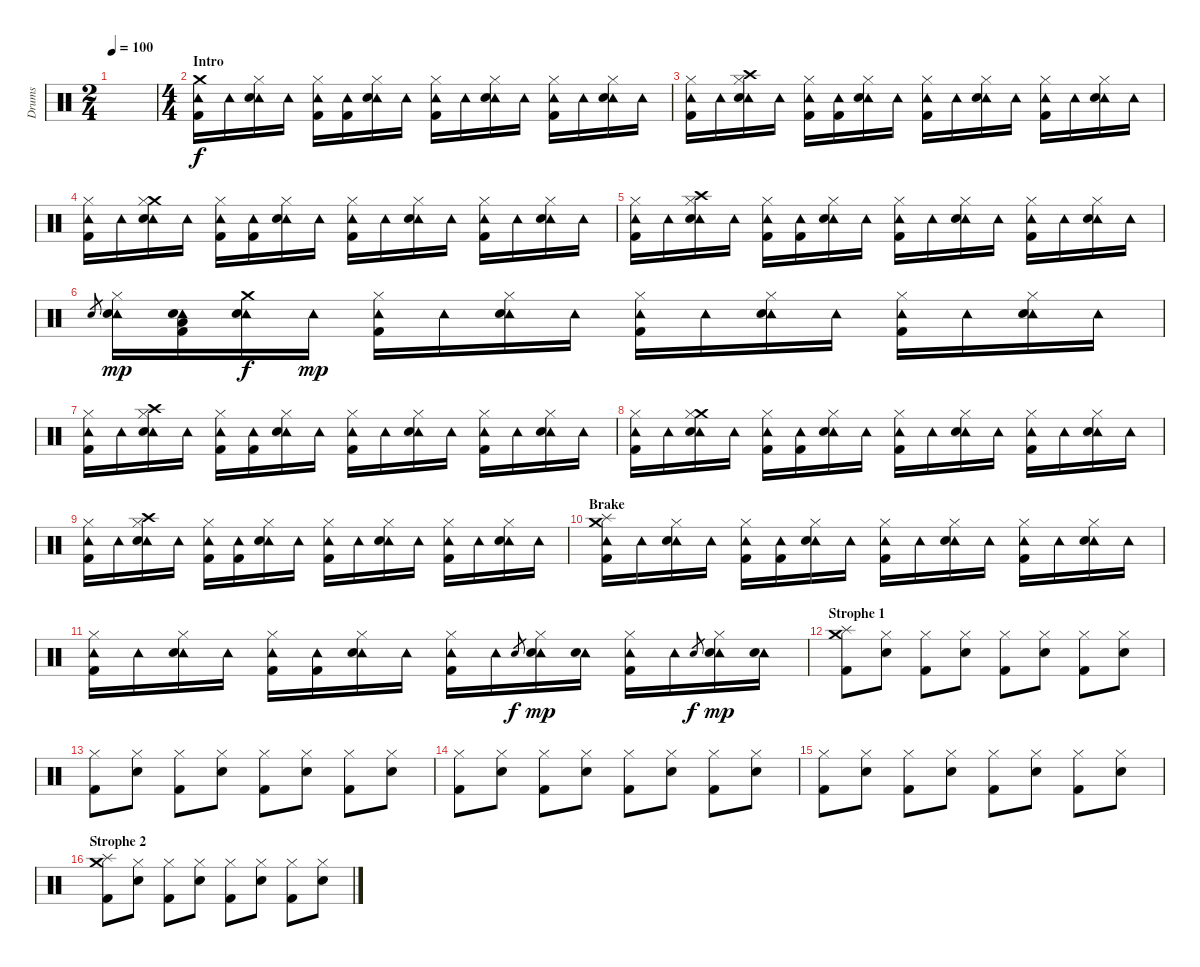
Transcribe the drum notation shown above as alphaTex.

\track ("Drums" "Drums") {instrument percussion}
\staff {score}
\articulation defaults
\ts (2 4)
\tempo 100
\clef neutral
\ks c
|
\ts (4 4)
\section ("" "Intro")
("Crash medium (hit)" "Tambourine (hit)" "Kick (hit) 2").16 "Tambourine (hit)".16 ("Hi-Hat (closed)" "Tambourine (hit)" "Electric Snare (hit)").16 "Tambourine (hit)".16 ("Hi-Hat (closed)" "Tambourine (hit)" "Kick (hit) 2").16 ("Tambourine (hit)" "Kick (hit) 2").16 ("Hi-Hat (closed)" "Tambourine (hit)" "Electric Snare (hit)").16 "Tambourine (hit)".16 ("Hi-Hat (closed)" "Tambourine (hit)" "Kick (hit) 2").16 "Tambourine (hit)".16 ("Hi-Hat (closed)" "Tambourine (hit)" "Electric Snare (hit)").16 "Tambourine (hit)".16 ("Hi-Hat (closed)" "Tambourine (hit)" "Kick (hit) 2").16 "Tambourine (hit)".16 ("Hi-Hat (closed)" "Tambourine (hit)" "Electric Snare (hit)").16 "Tambourine (hit)".16 |
("Hi-Hat (closed)" "Tambourine (hit)" "Kick (hit) 2").16 "Tambourine (hit)".16 ("Crash high (hit)" "Hi-Hat (closed)" "Tambourine (hit)" "Electric Snare (hit)").16 "Tambourine (hit)".16 ("Hi-Hat (closed)" "Tambourine (hit)" "Kick (hit) 2").16 ("Tambourine (hit)" "Kick (hit) 2").16 ("Hi-Hat (closed)" "Tambourine (hit)" "Electric Snare (hit)").16 "Tambourine (hit)".16 ("Hi-Hat (closed)" "Tambourine (hit)" "Kick (hit) 2").16 "Tambourine (hit)".16 ("Hi-Hat (closed)" "Tambourine (hit)" "Electric Snare (hit)").16 "Tambourine (hit)".16 ("Hi-Hat (closed)" "Tambourine (hit)" "Kick (hit) 2").16 "Tambourine (hit)".16 ("Hi-Hat (closed)" "Tambourine (hit)" "Electric Snare (hit)").16 "Tambourine (hit)".16 |
("Hi-Hat (closed)" "Tambourine (hit)" "Kick (hit) 2").16 "Tambourine (hit)".16 ("Crash medium (hit)" "Hi-Hat (closed)" "Tambourine (hit)" "Electric Snare (hit)").16 "Tambourine (hit)".16 ("Hi-Hat (closed)" "Tambourine (hit)" "Kick (hit) 2").16 ("Tambourine (hit)" "Kick (hit) 2").16 ("Hi-Hat (closed)" "Tambourine (hit)" "Electric Snare (hit)").16 "Tambourine (hit)".16 ("Hi-Hat (closed)" "Tambourine (hit)" "Kick (hit) 2").16 "Tambourine (hit)".16 ("Hi-Hat (closed)" "Tambourine (hit)" "Electric Snare (hit)").16 "Tambourine (hit)".16 ("Hi-Hat (closed)" "Tambourine (hit)" "Kick (hit) 2").16 "Tambourine (hit)".16 ("Hi-Hat (closed)" "Tambourine (hit)" "Electric Snare (hit)").16 "Tambourine (hit)".16 |
("Hi-Hat (closed)" "Tambourine (hit)" "Kick (hit) 2").16 "Tambourine (hit)".16 ("Crash high (hit)" "Hi-Hat (closed)" "Tambourine (hit)" "Electric Snare (hit)").16 "Tambourine (hit)".16 ("Hi-Hat (closed)" "Tambourine (hit)" "Kick (hit) 2").16 ("Tambourine (hit)" "Kick (hit) 2").16 ("Hi-Hat (closed)" "Tambourine (hit)" "Electric Snare (hit)").16 "Tambourine (hit)".16 ("Hi-Hat (closed)" "Tambourine (hit)" "Kick (hit) 2").16 "Tambourine (hit)".16 ("Hi-Hat (closed)" "Tambourine (hit)" "Electric Snare (hit)").16 "Tambourine (hit)".16 ("Hi-Hat (closed)" "Tambourine (hit)" "Kick (hit) 2").16 "Tambourine (hit)".16 ("Hi-Hat (closed)" "Tambourine (hit)" "Electric Snare (hit)").16 "Tambourine (hit)".16 |
"Electric Snare (hit)".8{gr dy f} ("Hi-Hat (closed)" "Tambourine (hit)" "Electric Snare (hit)").16{dy mp} ("Tambourine (hit)" "Electric Snare (hit)" "Low Floor Tom (hit)" "Kick (hit) 2").16 ("Crash medium (hit)" "Tambourine (hit)" "Electric Snare (hit)").16{dy f} "Tambourine (hit)".16{dy mp} ("Hi-Hat (closed)" "Tambourine (hit)" "Kick (hit) 2").16 "Tambourine (hit)".16 ("Hi-Hat (closed)" "Tambourine (hit)" "Electric Snare (hit)").16 "Tambourine (hit)".16 ("Hi-Hat (closed)" "Tambourine (hit)" "Kick (hit) 2").16 "Tambourine (hit)".16 ("Hi-Hat (closed)" "Tambourine (hit)" "Electric Snare (hit)").16 "Tambourine (hit)".16 ("Hi-Hat (closed)" "Tambourine (hit)" "Kick (hit) 2").16 "Tambourine (hit)".16 ("Hi-Hat (closed)" "Tambourine (hit)" "Electric Snare (hit)").16 "Tambourine (hit)".16 |
("Hi-Hat (closed)" "Tambourine (hit)" "Kick (hit) 2").16 "Tambourine (hit)".16 ("Crash high (hit)" "Hi-Hat (closed)" "Tambourine (hit)" "Electric Snare (hit)").16 "Tambourine (hit)".16 ("Hi-Hat (closed)" "Tambourine (hit)" "Kick (hit) 2").16 ("Tambourine (hit)" "Kick (hit) 2").16 ("Hi-Hat (closed)" "Tambourine (hit)" "Electric Snare (hit)").16 "Tambourine (hit)".16 ("Hi-Hat (closed)" "Tambourine (hit)" "Kick (hit) 2").16 "Tambourine (hit)".16 ("Hi-Hat (closed)" "Tambourine (hit)" "Electric Snare (hit)").16 "Tambourine (hit)".16 ("Hi-Hat (closed)" "Tambourine (hit)" "Kick (hit) 2").16 "Tambourine (hit)".16 ("Hi-Hat (closed)" "Tambourine (hit)" "Electric Snare (hit)").16 "Tambourine (hit)".16 |
("Hi-Hat (closed)" "Tambourine (hit)" "Kick (hit) 2").16 "Tambourine (hit)".16 ("Crash medium (hit)" "Hi-Hat (closed)" "Tambourine (hit)" "Electric Snare (hit)").16 "Tambourine (hit)".16 ("Hi-Hat (closed)" "Tambourine (hit)" "Kick (hit) 2").16 ("Tambourine (hit)" "Kick (hit) 2").16 ("Hi-Hat (closed)" "Tambourine (hit)" "Electric Snare (hit)").16 "Tambourine (hit)".16 ("Hi-Hat (closed)" "Tambourine (hit)" "Kick (hit) 2").16 "Tambourine (hit)".16 ("Hi-Hat (closed)" "Tambourine (hit)" "Electric Snare (hit)").16 "Tambourine (hit)".16 ("Hi-Hat (closed)" "Tambourine (hit)" "Kick (hit) 2").16 "Tambourine (hit)".16 ("Hi-Hat (closed)" "Tambourine (hit)" "Electric Snare (hit)").16 "Tambourine (hit)".16 |
("Hi-Hat (closed)" "Tambourine (hit)" "Kick (hit) 2").16 "Tambourine (hit)".16 ("Crash high (hit)" "Hi-Hat (closed)" "Tambourine (hit)" "Electric Snare (hit)").16 "Tambourine (hit)".16 ("Hi-Hat (closed)" "Tambourine (hit)" "Kick (hit) 2").16 ("Tambourine (hit)" "Kick (hit) 2").16 ("Hi-Hat (closed)" "Tambourine (hit)" "Electric Snare (hit)").16 "Tambourine (hit)".16 ("Hi-Hat (closed)" "Tambourine (hit)" "Kick (hit) 2").16 "Tambourine (hit)".16 ("Hi-Hat (closed)" "Tambourine (hit)" "Electric Snare (hit)").16 "Tambourine (hit)".16 ("Hi-Hat (closed)" "Tambourine (hit)" "Kick (hit) 2").16 "Tambourine (hit)".16 ("Hi-Hat (closed)" "Tambourine (hit)" "Electric Snare (hit)").16 "Tambourine (hit)".16 |
\section ("" "Brake")
("Splash (hit)" "Crash medium (hit)" "Tambourine (hit)" "Kick (hit) 2").16 "Tambourine (hit)".16 ("Hi-Hat (closed)" "Tambourine (hit)" "Electric Snare (hit)").16 "Tambourine (hit)".16 ("Hi-Hat (closed)" "Tambourine (hit)" "Kick (hit) 2").16 ("Tambourine (hit)" "Kick (hit) 2").16 ("Hi-Hat (closed)" "Tambourine (hit)" "Electric Snare (hit)").16 "Tambourine (hit)".16 ("Hi-Hat (closed)" "Tambourine (hit)" "Kick (hit) 2").16 "Tambourine (hit)".16 ("Hi-Hat (closed)" "Tambourine (hit)" "Electric Snare (hit)").16 "Tambourine (hit)".16 ("Hi-Hat (closed)" "Tambourine (hit)" "Kick (hit) 2").16 "Tambourine (hit)".16 ("Hi-Hat (closed)" "Tambourine (hit)" "Electric Snare (hit)").16 "Tambourine (hit)".16 |
("Hi-Hat (closed)" "Tambourine (hit)" "Kick (hit) 2").16 "Tambourine (hit)".16 ("Hi-Hat (closed)" "Tambourine (hit)" "Electric Snare (hit)").16 "Tambourine (hit)".16 ("Hi-Hat (closed)" "Tambourine (hit)" "Kick (hit) 2").16 ("Tambourine (hit)" "Kick (hit) 2").16 ("Hi-Hat (closed)" "Tambourine (hit)" "Electric Snare (hit)").16 "Tambourine (hit)".16 ("Hi-Hat (closed)" "Tambourine (hit)" "Kick (hit) 2").16 "Tambourine (hit)".16 "Electric Snare (hit)".8{gr dy f} ("Hi-Hat (closed)" "Tambourine (hit)" "Electric Snare (hit)").16{dy mp} ("Tambourine (hit)" "Electric Snare (hit)").16 ("Hi-Hat (closed)" "Tambourine (hit)" "Kick (hit) 2").16 "Tambourine (hit)".16 "Electric Snare (hit)".8{gr dy f} ("Hi-Hat (closed)" "Tambourine (hit)" "Electric Snare (hit)").16{dy mp} ("Tambourine (hit)" "Electric Snare (hit)").16 |
\section ("" "Strophe 1")
("Splash (hit)" "Crash medium (hit)" "Kick (hit) 2").8 ("Hi-Hat (closed)" "Electric Snare (hit)").8 ("Hi-Hat (closed)" "Kick (hit) 2").8 ("Hi-Hat (closed)" "Electric Snare (hit)").8 ("Hi-Hat (closed)" "Kick (hit) 2").8 ("Hi-Hat (closed)" "Electric Snare (hit)").8 ("Hi-Hat (closed)" "Kick (hit) 2").8 ("Hi-Hat (closed)" "Electric Snare (hit)").8 |
("Hi-Hat (closed)" "Kick (hit) 2").8 ("Hi-Hat (closed)" "Electric Snare (hit)").8 ("Hi-Hat (closed)" "Kick (hit) 2").8 ("Hi-Hat (closed)" "Electric Snare (hit)").8 ("Hi-Hat (closed)" "Kick (hit) 2").8 ("Hi-Hat (closed)" "Electric Snare (hit)").8 ("Hi-Hat (closed)" "Kick (hit) 2").8 ("Hi-Hat (closed)" "Electric Snare (hit)").8 |
("Hi-Hat (closed)" "Kick (hit) 2").8 ("Hi-Hat (closed)" "Electric Snare (hit)").8 ("Hi-Hat (closed)" "Kick (hit) 2").8 ("Hi-Hat (closed)" "Electric Snare (hit)").8 ("Hi-Hat (closed)" "Kick (hit) 2").8 ("Hi-Hat (closed)" "Electric Snare (hit)").8 ("Hi-Hat (closed)" "Kick (hit) 2").8 ("Hi-Hat (closed)" "Electric Snare (hit)").8 |
("Hi-Hat (closed)" "Kick (hit) 2").8 ("Hi-Hat (closed)" "Electric Snare (hit)").8 ("Hi-Hat (closed)" "Kick (hit) 2").8 ("Hi-Hat (closed)" "Electric Snare (hit)").8 ("Hi-Hat (closed)" "Kick (hit) 2").8 ("Hi-Hat (closed)" "Electric Snare (hit)").8 ("Hi-Hat (closed)" "Kick (hit) 2").8 ("Hi-Hat (closed)" "Electric Snare (hit)").8 |
\section ("" "Strophe 2")
("Splash (hit)" "Crash medium (hit)" "Kick (hit) 2").8 ("Hi-Hat (closed)" "Electric Snare (hit)").8 ("Hi-Hat (closed)" "Kick (hit) 2").8 ("Hi-Hat (closed)" "Electric Snare (hit)").8 ("Hi-Hat (closed)" "Kick (hit) 2").8 ("Hi-Hat (closed)" "Electric Snare (hit)").8 ("Hi-Hat (closed)" "Kick (hit) 2").8 ("Hi-Hat (closed)" "Electric Snare (hit)").8
